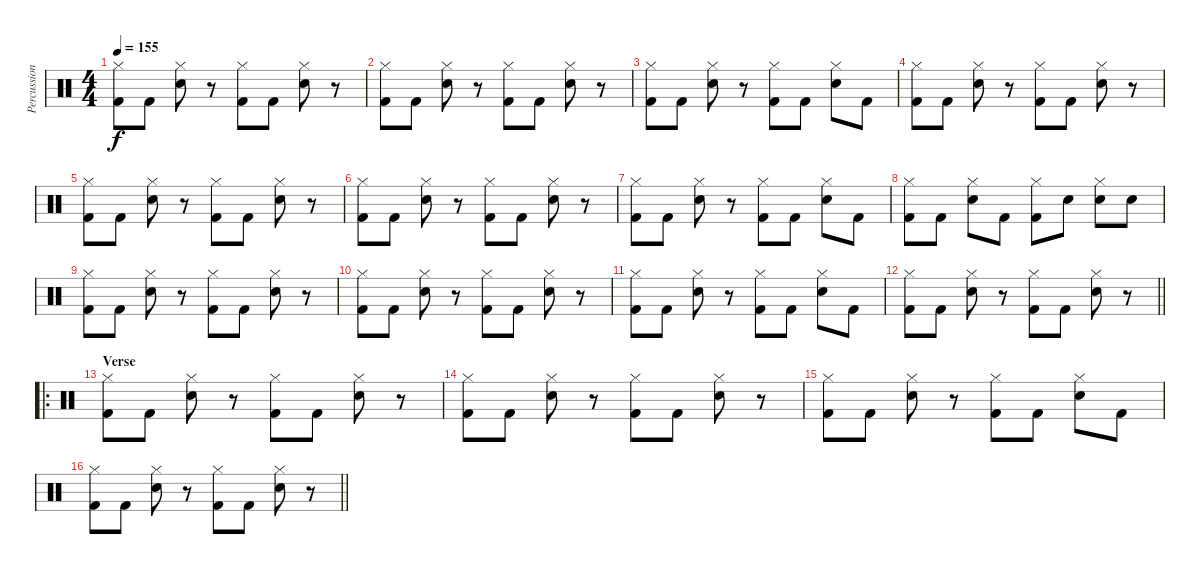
\track ("Percussions" "Percussion") {mute instrument percussion}
\staff {score}
\articulation defaults
\ts (4 4)
\tempo 155
\clef neutral
\ks c
("Hi-Hat (closed)" "Kick (hit) 2").8{dy f} "Kick (hit) 2".8 ("Hi-Hat (closed)" "Electric Snare (hit)").8 r.8 ("Hi-Hat (closed)" "Kick (hit) 2").8 "Kick (hit) 2".8 ("Hi-Hat (closed)" "Electric Snare (hit)").8 r.8 |
("Hi-Hat (closed)" "Kick (hit) 2").8 "Kick (hit) 2".8 ("Hi-Hat (closed)" "Electric Snare (hit)").8 r.8 ("Hi-Hat (closed)" "Kick (hit) 2").8 "Kick (hit) 2".8 ("Hi-Hat (closed)" "Electric Snare (hit)").8 r.8 |
("Hi-Hat (closed)" "Kick (hit) 2").8 "Kick (hit) 2".8 ("Hi-Hat (closed)" "Electric Snare (hit)").8 r.8 ("Hi-Hat (closed)" "Kick (hit) 2").8 "Kick (hit) 2".8 ("Hi-Hat (closed)" "Electric Snare (hit)").8 "Kick (hit) 2".8 |
("Hi-Hat (closed)" "Kick (hit) 2").8 "Kick (hit) 2".8 ("Hi-Hat (closed)" "Electric Snare (hit)").8 r.8 ("Hi-Hat (closed)" "Kick (hit) 2").8 "Kick (hit) 2".8 ("Hi-Hat (closed)" "Electric Snare (hit)").8 r.8 |
("Hi-Hat (closed)" "Kick (hit) 2").8 "Kick (hit) 2".8 ("Hi-Hat (closed)" "Electric Snare (hit)").8 r.8 ("Hi-Hat (closed)" "Kick (hit) 2").8 "Kick (hit) 2".8 ("Hi-Hat (closed)" "Electric Snare (hit)").8 r.8 |
("Hi-Hat (closed)" "Kick (hit) 2").8 "Kick (hit) 2".8 ("Hi-Hat (closed)" "Electric Snare (hit)").8 r.8 ("Hi-Hat (closed)" "Kick (hit) 2").8 "Kick (hit) 2".8 ("Hi-Hat (closed)" "Electric Snare (hit)").8 r.8 |
("Hi-Hat (closed)" "Kick (hit) 2").8 "Kick (hit) 2".8 ("Hi-Hat (closed)" "Electric Snare (hit)").8 r.8 ("Hi-Hat (closed)" "Kick (hit) 2").8 "Kick (hit) 2".8 ("Hi-Hat (closed)" "Electric Snare (hit)").8 "Kick (hit) 2".8 |
("Hi-Hat (closed)" "Kick (hit) 2").8 "Kick (hit) 2".8 ("Hi-Hat (closed)" "Electric Snare (hit)").8 "Kick (hit) 2".8 ("Hi-Hat (closed)" "Kick (hit) 2").8 "Electric Snare (hit)".8 ("Hi-Hat (closed)" "Electric Snare (hit)").8 "Electric Snare (hit)".8 |
("Hi-Hat (closed)" "Kick (hit) 2").8 "Kick (hit) 2".8 ("Hi-Hat (closed)" "Electric Snare (hit)").8 r.8 ("Hi-Hat (closed)" "Kick (hit) 2").8 "Kick (hit) 2".8 ("Hi-Hat (closed)" "Electric Snare (hit)").8 r.8 |
("Hi-Hat (closed)" "Kick (hit) 2").8 "Kick (hit) 2".8 ("Hi-Hat (closed)" "Electric Snare (hit)").8 r.8 ("Hi-Hat (closed)" "Kick (hit) 2").8 "Kick (hit) 2".8 ("Hi-Hat (closed)" "Electric Snare (hit)").8 r.8 |
("Hi-Hat (closed)" "Kick (hit) 2").8 "Kick (hit) 2".8 ("Hi-Hat (closed)" "Electric Snare (hit)").8 r.8 ("Hi-Hat (closed)" "Kick (hit) 2").8 "Kick (hit) 2".8 ("Hi-Hat (closed)" "Electric Snare (hit)").8 "Kick (hit) 2".8 |
\barLineRight lightlight
("Hi-Hat (closed)" "Kick (hit) 2").8 "Kick (hit) 2".8 ("Hi-Hat (closed)" "Electric Snare (hit)").8 r.8 ("Hi-Hat (closed)" "Kick (hit) 2").8 "Kick (hit) 2".8 ("Hi-Hat (closed)" "Electric Snare (hit)").8 r.8 |
\ro
\section ("" "Verse")
("Hi-Hat (closed)" "Kick (hit) 2").8 "Kick (hit) 2".8 ("Hi-Hat (closed)" "Electric Snare (hit)").8 r.8 ("Hi-Hat (closed)" "Kick (hit) 2").8 "Kick (hit) 2".8 ("Hi-Hat (closed)" "Electric Snare (hit)").8 r.8 |
("Hi-Hat (closed)" "Kick (hit) 2").8 "Kick (hit) 2".8 ("Hi-Hat (closed)" "Electric Snare (hit)").8 r.8 ("Hi-Hat (closed)" "Kick (hit) 2").8 "Kick (hit) 2".8 ("Hi-Hat (closed)" "Electric Snare (hit)").8 r.8 |
("Hi-Hat (closed)" "Kick (hit) 2").8 "Kick (hit) 2".8 ("Hi-Hat (closed)" "Electric Snare (hit)").8 r.8 ("Hi-Hat (closed)" "Kick (hit) 2").8 "Kick (hit) 2".8 ("Hi-Hat (closed)" "Electric Snare (hit)").8 "Kick (hit) 2".8 |
\barLineRight lightlight
("Hi-Hat (closed)" "Kick (hit) 2").8 "Kick (hit) 2".8 ("Hi-Hat (closed)" "Electric Snare (hit)").8 r.8 ("Hi-Hat (closed)" "Kick (hit) 2").8 "Kick (hit) 2".8 ("Hi-Hat (closed)" "Electric Snare (hit)").8 r.8
